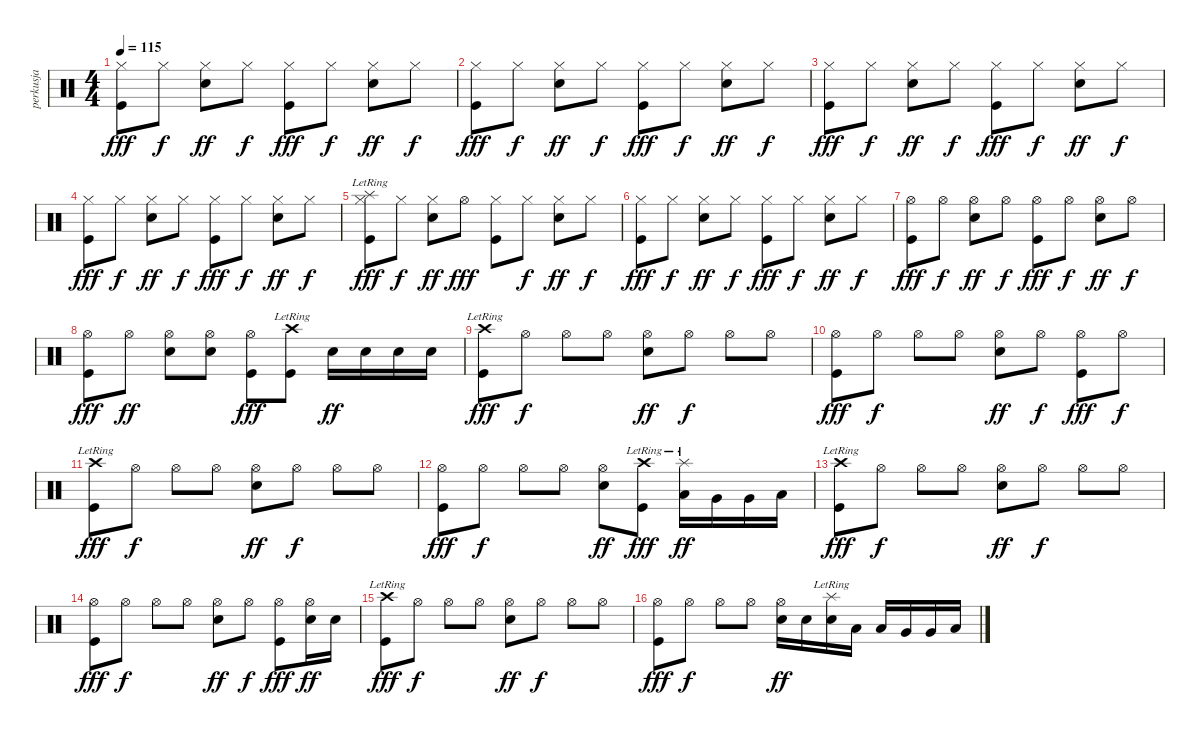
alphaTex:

\track ("perkusja" "perkusja") {instrument percussion}
\staff {score}
\articulation defaults
\ts (4 4)
\tempo 115
\clef neutral
\ks c
("Hi-Hat (closed)" "Kick (hit)").8{dy fff} "Hi-Hat (closed)".8{dy f} ("Hi-Hat (closed)" "Electric Snare (hit)").8{dy ff} "Hi-Hat (closed)".8{dy f} ("Hi-Hat (closed)" "Kick (hit)").8{dy fff} "Hi-Hat (closed)".8{dy f} ("Hi-Hat (closed)" "Electric Snare (hit)").8{dy ff} "Hi-Hat (closed)".8{dy f} |
("Hi-Hat (closed)" "Kick (hit)").8{dy fff} "Hi-Hat (closed)".8{dy f} ("Hi-Hat (closed)" "Electric Snare (hit)").8{dy ff} "Hi-Hat (closed)".8{dy f} ("Hi-Hat (closed)" "Kick (hit)").8{dy fff} "Hi-Hat (closed)".8{dy f} ("Hi-Hat (closed)" "Electric Snare (hit)").8{dy ff} "Hi-Hat (closed)".8{dy f} |
("Hi-Hat (closed)" "Kick (hit)").8{dy fff} "Hi-Hat (closed)".8{dy f} ("Hi-Hat (closed)" "Electric Snare (hit)").8{dy ff} "Hi-Hat (closed)".8{dy f} ("Hi-Hat (closed)" "Kick (hit)").8{dy fff} "Hi-Hat (closed)".8{dy f} ("Hi-Hat (closed)" "Electric Snare (hit)").8{dy ff} "Hi-Hat (closed)".8{dy f} |
("Hi-Hat (closed)" "Kick (hit)").8{dy fff} "Hi-Hat (closed)".8{dy f} ("Hi-Hat (closed)" "Electric Snare (hit)").8{dy ff} "Hi-Hat (closed)".8{dy f} ("Hi-Hat (closed)" "Kick (hit)").8{dy fff} "Hi-Hat (closed)".8{dy f} ("Hi-Hat (closed)" "Electric Snare (hit)").8{dy ff} "Hi-Hat (closed)".8{dy f} |
("Splash (hit)"{lr} "Hi-Hat (closed)" "Kick (hit)").8{dy fff} "Hi-Hat (closed)".8{dy f} ("Hi-Hat (closed)" "Electric Snare (hit)").8{dy ff} "Hi-Hat (open)".8{dy fff} ("Hi-Hat (closed)" "Kick (hit)").8 "Hi-Hat (closed)".8{dy f} ("Hi-Hat (closed)" "Electric Snare (hit)").8{dy ff} "Hi-Hat (closed)".8{dy f} |
("Hi-Hat (closed)" "Kick (hit)").8{dy fff} "Hi-Hat (closed)".8{dy f} ("Hi-Hat (closed)" "Electric Snare (hit)").8{dy ff} "Hi-Hat (closed)".8{dy f} ("Hi-Hat (closed)" "Kick (hit)").8{dy fff} "Hi-Hat (closed)".8{dy f} ("Hi-Hat (closed)" "Electric Snare (hit)").8{dy ff} "Hi-Hat (closed)".8{dy f} |
("Hi-Hat (open)" "Kick (hit)").8{dy fff} "Hi-Hat (open)".8{dy f} ("Hi-Hat (open)" "Electric Snare (hit)").8{dy ff} "Hi-Hat (open)".8{dy f} ("Hi-Hat (open)" "Kick (hit)").8{dy fff} "Hi-Hat (open)".8{dy f} ("Hi-Hat (open)" "Electric Snare (hit)").8{dy ff} "Hi-Hat (open)".8{dy f} |
("Hi-Hat (open)" "Kick (hit)").8{dy fff} "Hi-Hat (open)".8{dy ff} ("Hi-Hat (open)" "Electric Snare (hit)").8 ("Hi-Hat (open)" "Electric Snare (hit)").8 ("Hi-Hat (open)" "Kick (hit)").8{dy fff} ("Crash high (hit)"{lr} "Kick (hit)").8 "Electric Snare (hit)".16{dy ff} "Electric Snare (hit)".16 "Electric Snare (hit)".16 "Electric Snare (hit)".16 |
("Crash high (hit)"{lr} "Kick (hit)").8{dy fff} "Hi-Hat (open)".8{dy f} "Hi-Hat (open)".8 "Hi-Hat (open)".8 ("Hi-Hat (open)" "Electric Snare (hit)").8{dy ff} "Hi-Hat (open)".8{dy f} "Hi-Hat (open)".8 "Hi-Hat (open)".8 |
("Hi-Hat (open)" "Kick (hit)").8{dy fff} "Hi-Hat (open)".8{dy f} "Hi-Hat (open)".8 "Hi-Hat (open)".8 ("Hi-Hat (open)" "Electric Snare (hit)").8{dy ff} "Hi-Hat (open)".8{dy f} ("Hi-Hat (open)" "Kick (hit)").8{dy fff} "Hi-Hat (open)".8{dy f} |
("Crash high (hit)"{lr} "Kick (hit)").8{dy fff} "Hi-Hat (open)".8{dy f} "Hi-Hat (open)".8 "Hi-Hat (open)".8 ("Hi-Hat (open)" "Electric Snare (hit)").8{dy ff} "Hi-Hat (open)".8{dy f} "Hi-Hat (open)".8 "Hi-Hat (open)".8 |
("Hi-Hat (open)" "Kick (hit)").8{dy fff} "Hi-Hat (open)".8{dy f} "Hi-Hat (open)".8 "Hi-Hat (open)".8 ("Hi-Hat (open)" "Electric Snare (hit)").8{dy ff} ("Crash high (hit)"{lr} "Kick (hit)").8{dy fff} ("Splash (hit)"{lr} "Low Floor Tom (hit)").16{dy ff} "Very Low Tom (hit)".16 "Very Low Tom (hit)".16 "Low Floor Tom (hit)".16 |
("Crash high (hit)"{lr} "Kick (hit)").8{dy fff} "Hi-Hat (open)".8{dy f} "Hi-Hat (open)".8 "Hi-Hat (open)".8 ("Hi-Hat (open)" "Electric Snare (hit)").8{dy ff} "Hi-Hat (open)".8{dy f} "Hi-Hat (open)".8 "Hi-Hat (open)".8 |
("Hi-Hat (open)" "Kick (hit)").8{dy fff} "Hi-Hat (open)".8{dy f} "Hi-Hat (open)".8 "Hi-Hat (open)".8 ("Hi-Hat (open)" "Electric Snare (hit)").8{dy ff} "Hi-Hat (open)".8{dy f} ("Hi-Hat (open)" "Kick (hit)").8{dy fff} ("Hi-Hat (open)" "Electric Snare (hit)").16{dy ff} "Electric Snare (hit)".16 |
("Crash high (hit)"{lr} "Kick (hit)").8{dy fff} "Hi-Hat (open)".8{dy f} "Hi-Hat (open)".8 "Hi-Hat (open)".8 ("Hi-Hat (open)" "Electric Snare (hit)").8{dy ff} "Hi-Hat (open)".8{dy f} "Hi-Hat (open)".8 "Hi-Hat (open)".8 |
("Hi-Hat (open)" "Kick (hit)").8{dy fff} "Hi-Hat (open)".8{dy f} "Hi-Hat (open)".8 "Hi-Hat (open)".8 ("Hi-Hat (open)" "Electric Snare (hit)").16{dy ff} "Electric Snare (hit)".16 ("Splash (hit)"{lr} "Electric Snare (hit)").16 "Low Floor Tom (hit)".16 "Low Floor Tom (hit)".16 "Very Low Tom (hit)".16 "Very Low Tom (hit)".16 "Low Floor Tom (hit)".16
